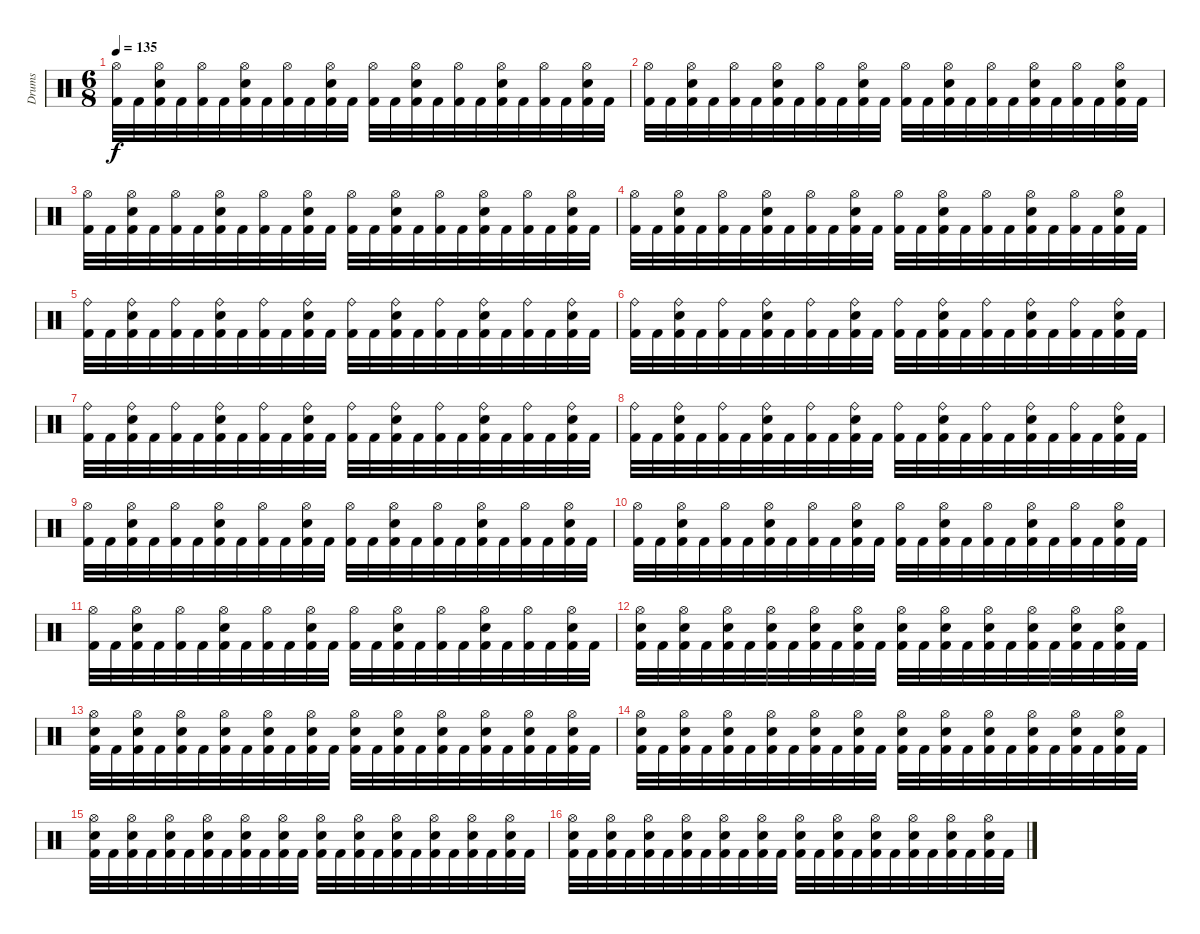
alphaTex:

\track ("Drums" "Drums") {instrument percussion}
\staff {score}
\articulation defaults
\ts (6 8)
\tempo 135
\clef neutral
\ks c
("Hi-Hat (open)" "Kick (hit) 2").32{dy f} "Kick (hit) 2".32 ("Hi-Hat (open)" "Electric Snare (hit)" "Kick (hit) 2").32 "Kick (hit) 2".32 ("Hi-Hat (open)" "Kick (hit) 2").32 "Kick (hit) 2".32 ("Hi-Hat (open)" "Electric Snare (hit)" "Kick (hit) 2").32 "Kick (hit) 2".32 ("Hi-Hat (open)" "Kick (hit) 2").32 "Kick (hit) 2".32 ("Hi-Hat (open)" "Electric Snare (hit)" "Kick (hit) 2").32 "Kick (hit) 2".32 ("Hi-Hat (open)" "Kick (hit) 2").32 "Kick (hit) 2".32 ("Hi-Hat (open)" "Electric Snare (hit)" "Kick (hit) 2").32 "Kick (hit) 2".32 ("Hi-Hat (open)" "Kick (hit) 2").32 "Kick (hit) 2".32 ("Hi-Hat (open)" "Electric Snare (hit)" "Kick (hit) 2").32 "Kick (hit) 2".32 ("Hi-Hat (open)" "Kick (hit) 2").32 "Kick (hit) 2".32 ("Hi-Hat (open)" "Electric Snare (hit)" "Kick (hit) 2").32 "Kick (hit) 2".32 |
("Hi-Hat (open)" "Kick (hit) 2").32 "Kick (hit) 2".32 ("Hi-Hat (open)" "Electric Snare (hit)" "Kick (hit) 2").32 "Kick (hit) 2".32 ("Hi-Hat (open)" "Kick (hit) 2").32 "Kick (hit) 2".32 ("Hi-Hat (open)" "Electric Snare (hit)" "Kick (hit) 2").32 "Kick (hit) 2".32 ("Hi-Hat (open)" "Kick (hit) 2").32 "Kick (hit) 2".32 ("Hi-Hat (open)" "Electric Snare (hit)" "Kick (hit) 2").32 "Kick (hit) 2".32 ("Hi-Hat (open)" "Kick (hit) 2").32 "Kick (hit) 2".32 ("Hi-Hat (open)" "Electric Snare (hit)" "Kick (hit) 2").32 "Kick (hit) 2".32 ("Hi-Hat (open)" "Kick (hit) 2").32 "Kick (hit) 2".32 ("Hi-Hat (open)" "Electric Snare (hit)" "Kick (hit) 2").32 "Kick (hit) 2".32 ("Hi-Hat (open)" "Kick (hit) 2").32 "Kick (hit) 2".32 ("Hi-Hat (open)" "Electric Snare (hit)" "Kick (hit) 2").32 "Kick (hit) 2".32 |
("Hi-Hat (open)" "Kick (hit) 2").32 "Kick (hit) 2".32 ("Hi-Hat (open)" "Electric Snare (hit)" "Kick (hit) 2").32 "Kick (hit) 2".32 ("Hi-Hat (open)" "Kick (hit) 2").32 "Kick (hit) 2".32 ("Hi-Hat (open)" "Electric Snare (hit)" "Kick (hit) 2").32 "Kick (hit) 2".32 ("Hi-Hat (open)" "Kick (hit) 2").32 "Kick (hit) 2".32 ("Hi-Hat (open)" "Electric Snare (hit)" "Kick (hit) 2").32 "Kick (hit) 2".32 ("Hi-Hat (open)" "Kick (hit) 2").32 "Kick (hit) 2".32 ("Hi-Hat (open)" "Electric Snare (hit)" "Kick (hit) 2").32 "Kick (hit) 2".32 ("Hi-Hat (open)" "Kick (hit) 2").32 "Kick (hit) 2".32 ("Hi-Hat (open)" "Electric Snare (hit)" "Kick (hit) 2").32 "Kick (hit) 2".32 ("Hi-Hat (open)" "Kick (hit) 2").32 "Kick (hit) 2".32 ("Hi-Hat (open)" "Electric Snare (hit)" "Kick (hit) 2").32 "Kick (hit) 2".32 |
("Hi-Hat (open)" "Kick (hit) 2").32 "Kick (hit) 2".32 ("Hi-Hat (open)" "Electric Snare (hit)" "Kick (hit) 2").32 "Kick (hit) 2".32 ("Hi-Hat (open)" "Kick (hit) 2").32 "Kick (hit) 2".32 ("Hi-Hat (open)" "Electric Snare (hit)" "Kick (hit) 2").32 "Kick (hit) 2".32 ("Hi-Hat (open)" "Kick (hit) 2").32 "Kick (hit) 2".32 ("Hi-Hat (open)" "Electric Snare (hit)" "Kick (hit) 2").32 "Kick (hit) 2".32 ("Hi-Hat (open)" "Kick (hit) 2").32 "Kick (hit) 2".32 ("Hi-Hat (open)" "Electric Snare (hit)" "Kick (hit) 2").32 "Kick (hit) 2".32 ("Hi-Hat (open)" "Kick (hit) 2").32 "Kick (hit) 2".32 ("Hi-Hat (open)" "Electric Snare (hit)" "Kick (hit) 2").32 "Kick (hit) 2".32 ("Hi-Hat (open)" "Kick (hit) 2").32 "Kick (hit) 2".32 ("Hi-Hat (open)" "Electric Snare (hit)" "Kick (hit) 2").32 "Kick (hit) 2".32 |
("Ride (bell)" "Kick (hit) 2").32 "Kick (hit) 2".32 ("Ride (bell)" "Electric Snare (hit)" "Kick (hit) 2").32 "Kick (hit) 2".32 ("Ride (bell)" "Kick (hit) 2").32 "Kick (hit) 2".32 ("Ride (bell)" "Electric Snare (hit)" "Kick (hit) 2").32 "Kick (hit) 2".32 ("Ride (bell)" "Kick (hit) 2").32 "Kick (hit) 2".32 ("Ride (bell)" "Electric Snare (hit)" "Kick (hit) 2").32 "Kick (hit) 2".32 ("Ride (bell)" "Kick (hit) 2").32 "Kick (hit) 2".32 ("Ride (bell)" "Electric Snare (hit)" "Kick (hit) 2").32 "Kick (hit) 2".32 ("Ride (bell)" "Kick (hit) 2").32 "Kick (hit) 2".32 ("Ride (bell)" "Electric Snare (hit)" "Kick (hit) 2").32 "Kick (hit) 2".32 ("Ride (bell)" "Kick (hit) 2").32 "Kick (hit) 2".32 ("Ride (bell)" "Electric Snare (hit)" "Kick (hit) 2").32 "Kick (hit) 2".32 |
("Ride (bell)" "Kick (hit) 2").32 "Kick (hit) 2".32 ("Ride (bell)" "Electric Snare (hit)" "Kick (hit) 2").32 "Kick (hit) 2".32 ("Ride (bell)" "Kick (hit) 2").32 "Kick (hit) 2".32 ("Ride (bell)" "Electric Snare (hit)" "Kick (hit) 2").32 "Kick (hit) 2".32 ("Ride (bell)" "Kick (hit) 2").32 "Kick (hit) 2".32 ("Ride (bell)" "Electric Snare (hit)" "Kick (hit) 2").32 "Kick (hit) 2".32 ("Ride (bell)" "Kick (hit) 2").32 "Kick (hit) 2".32 ("Ride (bell)" "Electric Snare (hit)" "Kick (hit) 2").32 "Kick (hit) 2".32 ("Ride (bell)" "Kick (hit) 2").32 "Kick (hit) 2".32 ("Ride (bell)" "Electric Snare (hit)" "Kick (hit) 2").32 "Kick (hit) 2".32 ("Ride (bell)" "Kick (hit) 2").32 "Kick (hit) 2".32 ("Ride (bell)" "Electric Snare (hit)" "Kick (hit) 2").32 "Kick (hit) 2".32 |
("Ride (bell)" "Kick (hit) 2").32 "Kick (hit) 2".32 ("Ride (bell)" "Electric Snare (hit)" "Kick (hit) 2").32 "Kick (hit) 2".32 ("Ride (bell)" "Kick (hit) 2").32 "Kick (hit) 2".32 ("Ride (bell)" "Electric Snare (hit)" "Kick (hit) 2").32 "Kick (hit) 2".32 ("Ride (bell)" "Kick (hit) 2").32 "Kick (hit) 2".32 ("Ride (bell)" "Electric Snare (hit)" "Kick (hit) 2").32 "Kick (hit) 2".32 ("Ride (bell)" "Kick (hit) 2").32 "Kick (hit) 2".32 ("Ride (bell)" "Electric Snare (hit)" "Kick (hit) 2").32 "Kick (hit) 2".32 ("Ride (bell)" "Kick (hit) 2").32 "Kick (hit) 2".32 ("Ride (bell)" "Electric Snare (hit)" "Kick (hit) 2").32 "Kick (hit) 2".32 ("Ride (bell)" "Kick (hit) 2").32 "Kick (hit) 2".32 ("Ride (bell)" "Electric Snare (hit)" "Kick (hit) 2").32 "Kick (hit) 2".32 |
("Ride (bell)" "Kick (hit) 2").32 "Kick (hit) 2".32 ("Ride (bell)" "Electric Snare (hit)" "Kick (hit) 2").32 "Kick (hit) 2".32 ("Ride (bell)" "Kick (hit) 2").32 "Kick (hit) 2".32 ("Ride (bell)" "Electric Snare (hit)" "Kick (hit) 2").32 "Kick (hit) 2".32 ("Ride (bell)" "Kick (hit) 2").32 "Kick (hit) 2".32 ("Ride (bell)" "Electric Snare (hit)" "Kick (hit) 2").32 "Kick (hit) 2".32 ("Ride (bell)" "Kick (hit) 2").32 "Kick (hit) 2".32 ("Ride (bell)" "Electric Snare (hit)" "Kick (hit) 2").32 "Kick (hit) 2".32 ("Ride (bell)" "Kick (hit) 2").32 "Kick (hit) 2".32 ("Ride (bell)" "Electric Snare (hit)" "Kick (hit) 2").32 "Kick (hit) 2".32 ("Ride (bell)" "Kick (hit) 2").32 "Kick (hit) 2".32 ("Ride (bell)" "Electric Snare (hit)" "Kick (hit) 2").32 "Kick (hit) 2".32 |
("Hi-Hat (open)" "Kick (hit) 2").32 "Kick (hit) 2".32 ("Hi-Hat (open)" "Electric Snare (hit)" "Kick (hit) 2").32 "Kick (hit) 2".32 ("Hi-Hat (open)" "Kick (hit) 2").32 "Kick (hit) 2".32 ("Hi-Hat (open)" "Electric Snare (hit)" "Kick (hit) 2").32 "Kick (hit) 2".32 ("Hi-Hat (open)" "Kick (hit) 2").32 "Kick (hit) 2".32 ("Hi-Hat (open)" "Electric Snare (hit)" "Kick (hit) 2").32 "Kick (hit) 2".32 ("Hi-Hat (open)" "Kick (hit) 2").32 "Kick (hit) 2".32 ("Hi-Hat (open)" "Electric Snare (hit)" "Kick (hit) 2").32 "Kick (hit) 2".32 ("Hi-Hat (open)" "Kick (hit) 2").32 "Kick (hit) 2".32 ("Hi-Hat (open)" "Electric Snare (hit)" "Kick (hit) 2").32 "Kick (hit) 2".32 ("Hi-Hat (open)" "Kick (hit) 2").32 "Kick (hit) 2".32 ("Hi-Hat (open)" "Electric Snare (hit)" "Kick (hit) 2").32 "Kick (hit) 2".32 |
("Hi-Hat (open)" "Kick (hit) 2").32 "Kick (hit) 2".32 ("Hi-Hat (open)" "Electric Snare (hit)" "Kick (hit) 2").32 "Kick (hit) 2".32 ("Hi-Hat (open)" "Kick (hit) 2").32 "Kick (hit) 2".32 ("Hi-Hat (open)" "Electric Snare (hit)" "Kick (hit) 2").32 "Kick (hit) 2".32 ("Hi-Hat (open)" "Kick (hit) 2").32 "Kick (hit) 2".32 ("Hi-Hat (open)" "Electric Snare (hit)" "Kick (hit) 2").32 "Kick (hit) 2".32 ("Hi-Hat (open)" "Kick (hit) 2").32 "Kick (hit) 2".32 ("Hi-Hat (open)" "Electric Snare (hit)" "Kick (hit) 2").32 "Kick (hit) 2".32 ("Hi-Hat (open)" "Kick (hit) 2").32 "Kick (hit) 2".32 ("Hi-Hat (open)" "Electric Snare (hit)" "Kick (hit) 2").32 "Kick (hit) 2".32 ("Hi-Hat (open)" "Kick (hit) 2").32 "Kick (hit) 2".32 ("Hi-Hat (open)" "Electric Snare (hit)" "Kick (hit) 2").32 "Kick (hit) 2".32 |
("Hi-Hat (open)" "Kick (hit) 2").32 "Kick (hit) 2".32 ("Hi-Hat (open)" "Electric Snare (hit)" "Kick (hit) 2").32 "Kick (hit) 2".32 ("Hi-Hat (open)" "Kick (hit) 2").32 "Kick (hit) 2".32 ("Hi-Hat (open)" "Electric Snare (hit)" "Kick (hit) 2").32 "Kick (hit) 2".32 ("Hi-Hat (open)" "Kick (hit) 2").32 "Kick (hit) 2".32 ("Hi-Hat (open)" "Electric Snare (hit)" "Kick (hit) 2").32 "Kick (hit) 2".32 ("Hi-Hat (open)" "Kick (hit) 2").32 "Kick (hit) 2".32 ("Hi-Hat (open)" "Electric Snare (hit)" "Kick (hit) 2").32 "Kick (hit) 2".32 ("Hi-Hat (open)" "Kick (hit) 2").32 "Kick (hit) 2".32 ("Hi-Hat (open)" "Electric Snare (hit)" "Kick (hit) 2").32 "Kick (hit) 2".32 ("Hi-Hat (open)" "Kick (hit) 2").32 "Kick (hit) 2".32 ("Hi-Hat (open)" "Electric Snare (hit)" "Kick (hit) 2").32 "Kick (hit) 2".32 |
("Hi-Hat (open)" "Electric Snare (hit)" "Kick (hit) 2").32 "Kick (hit) 2".32 ("Hi-Hat (open)" "Electric Snare (hit)" "Kick (hit) 2").32 "Kick (hit) 2".32 ("Hi-Hat (open)" "Electric Snare (hit)" "Kick (hit) 2").32 "Kick (hit) 2".32 ("Hi-Hat (open)" "Electric Snare (hit)" "Kick (hit) 2").32 "Kick (hit) 2".32 ("Hi-Hat (open)" "Electric Snare (hit)" "Kick (hit) 2").32 "Kick (hit) 2".32 ("Hi-Hat (open)" "Electric Snare (hit)" "Kick (hit) 2").32 "Kick (hit) 2".32 ("Hi-Hat (open)" "Electric Snare (hit)" "Kick (hit) 2").32 "Kick (hit) 2".32 ("Hi-Hat (open)" "Electric Snare (hit)" "Kick (hit) 2").32 "Kick (hit) 2".32 ("Hi-Hat (open)" "Electric Snare (hit)" "Kick (hit) 2").32 "Kick (hit) 2".32 ("Hi-Hat (open)" "Electric Snare (hit)" "Kick (hit) 2").32 "Kick (hit) 2".32 ("Hi-Hat (open)" "Electric Snare (hit)" "Kick (hit) 2").32 "Kick (hit) 2".32 ("Hi-Hat (open)" "Electric Snare (hit)" "Kick (hit) 2").32 "Kick (hit) 2".32 |
("Hi-Hat (open)" "Electric Snare (hit)" "Kick (hit) 2").32 "Kick (hit) 2".32 ("Hi-Hat (open)" "Electric Snare (hit)" "Kick (hit) 2").32 "Kick (hit) 2".32 ("Hi-Hat (open)" "Electric Snare (hit)" "Kick (hit) 2").32 "Kick (hit) 2".32 ("Hi-Hat (open)" "Electric Snare (hit)" "Kick (hit) 2").32 "Kick (hit) 2".32 ("Hi-Hat (open)" "Electric Snare (hit)" "Kick (hit) 2").32 "Kick (hit) 2".32 ("Hi-Hat (open)" "Electric Snare (hit)" "Kick (hit) 2").32 "Kick (hit) 2".32 ("Hi-Hat (open)" "Electric Snare (hit)" "Kick (hit) 2").32 "Kick (hit) 2".32 ("Hi-Hat (open)" "Electric Snare (hit)" "Kick (hit) 2").32 "Kick (hit) 2".32 ("Hi-Hat (open)" "Electric Snare (hit)" "Kick (hit) 2").32 "Kick (hit) 2".32 ("Hi-Hat (open)" "Electric Snare (hit)" "Kick (hit) 2").32 "Kick (hit) 2".32 ("Hi-Hat (open)" "Electric Snare (hit)" "Kick (hit) 2").32 "Kick (hit) 2".32 ("Hi-Hat (open)" "Electric Snare (hit)" "Kick (hit) 2").32 "Kick (hit) 2".32 |
("Hi-Hat (open)" "Electric Snare (hit)" "Kick (hit) 2").32 "Kick (hit) 2".32 ("Hi-Hat (open)" "Electric Snare (hit)" "Kick (hit) 2").32 "Kick (hit) 2".32 ("Hi-Hat (open)" "Electric Snare (hit)" "Kick (hit) 2").32 "Kick (hit) 2".32 ("Hi-Hat (open)" "Electric Snare (hit)" "Kick (hit) 2").32 "Kick (hit) 2".32 ("Hi-Hat (open)" "Electric Snare (hit)" "Kick (hit) 2").32 "Kick (hit) 2".32 ("Hi-Hat (open)" "Electric Snare (hit)" "Kick (hit) 2").32 "Kick (hit) 2".32 ("Hi-Hat (open)" "Electric Snare (hit)" "Kick (hit) 2").32 "Kick (hit) 2".32 ("Hi-Hat (open)" "Electric Snare (hit)" "Kick (hit) 2").32 "Kick (hit) 2".32 ("Hi-Hat (open)" "Electric Snare (hit)" "Kick (hit) 2").32 "Kick (hit) 2".32 ("Hi-Hat (open)" "Electric Snare (hit)" "Kick (hit) 2").32 "Kick (hit) 2".32 ("Hi-Hat (open)" "Electric Snare (hit)" "Kick (hit) 2").32 "Kick (hit) 2".32 ("Hi-Hat (open)" "Electric Snare (hit)" "Kick (hit) 2").32 "Kick (hit) 2".32 |
("Hi-Hat (open)" "Electric Snare (hit)" "Kick (hit) 2").32 "Kick (hit) 2".32 ("Hi-Hat (open)" "Electric Snare (hit)" "Kick (hit) 2").32 "Kick (hit) 2".32 ("Hi-Hat (open)" "Electric Snare (hit)" "Kick (hit) 2").32 "Kick (hit) 2".32 ("Hi-Hat (open)" "Electric Snare (hit)" "Kick (hit) 2").32 "Kick (hit) 2".32 ("Hi-Hat (open)" "Electric Snare (hit)" "Kick (hit) 2").32 "Kick (hit) 2".32 ("Hi-Hat (open)" "Electric Snare (hit)" "Kick (hit) 2").32 "Kick (hit) 2".32 ("Hi-Hat (open)" "Electric Snare (hit)" "Kick (hit) 2").32 "Kick (hit) 2".32 ("Hi-Hat (open)" "Electric Snare (hit)" "Kick (hit) 2").32 "Kick (hit) 2".32 ("Hi-Hat (open)" "Electric Snare (hit)" "Kick (hit) 2").32 "Kick (hit) 2".32 ("Hi-Hat (open)" "Electric Snare (hit)" "Kick (hit) 2").32 "Kick (hit) 2".32 ("Hi-Hat (open)" "Electric Snare (hit)" "Kick (hit) 2").32 "Kick (hit) 2".32 ("Hi-Hat (open)" "Electric Snare (hit)" "Kick (hit) 2").32 "Kick (hit) 2".32 |
("Hi-Hat (open)" "Electric Snare (hit)" "Kick (hit) 2").32 "Kick (hit) 2".32 ("Hi-Hat (open)" "Electric Snare (hit)" "Kick (hit) 2").32 "Kick (hit) 2".32 ("Hi-Hat (open)" "Electric Snare (hit)" "Kick (hit) 2").32 "Kick (hit) 2".32 ("Hi-Hat (open)" "Electric Snare (hit)" "Kick (hit) 2").32 "Kick (hit) 2".32 ("Hi-Hat (open)" "Electric Snare (hit)" "Kick (hit) 2").32 "Kick (hit) 2".32 ("Hi-Hat (open)" "Electric Snare (hit)" "Kick (hit) 2").32 "Kick (hit) 2".32 ("Hi-Hat (open)" "Electric Snare (hit)" "Kick (hit) 2").32 "Kick (hit) 2".32 ("Hi-Hat (open)" "Electric Snare (hit)" "Kick (hit) 2").32 "Kick (hit) 2".32 ("Hi-Hat (open)" "Electric Snare (hit)" "Kick (hit) 2").32 "Kick (hit) 2".32 ("Hi-Hat (open)" "Electric Snare (hit)" "Kick (hit) 2").32 "Kick (hit) 2".32 ("Hi-Hat (open)" "Electric Snare (hit)" "Kick (hit) 2").32 "Kick (hit) 2".32 ("Hi-Hat (open)" "Electric Snare (hit)" "Kick (hit) 2").32 "Kick (hit) 2".32
